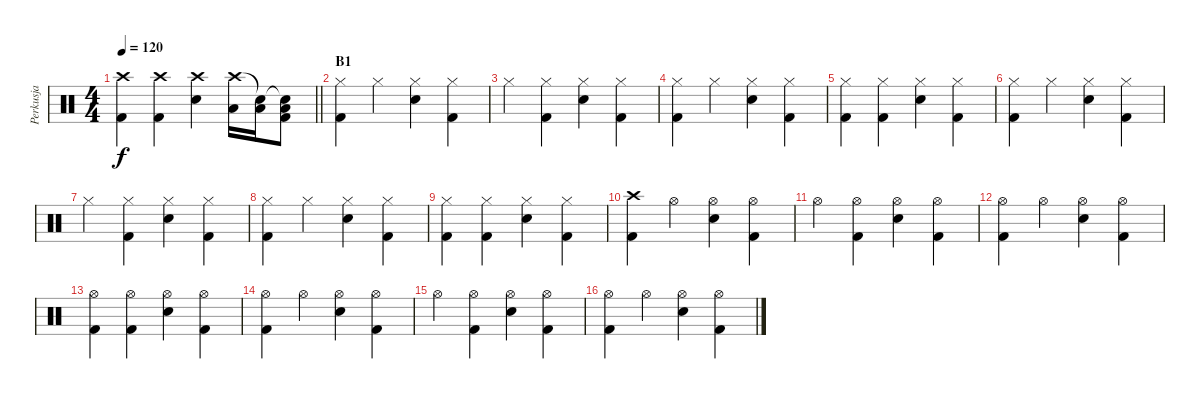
\track ("Perkusja" "Perkusja") {instrument percussion}
\staff {score}
\articulation defaults
\ts (4 4)
\tempo 120
\clef neutral
\barLineRight lightlight
\ks c
("Crash high (hit)" "Kick (hit) 2").4{dy f} ("Crash high (hit)" "Kick (hit) 2").4 ("Crash high (hit)" "Electric Snare (hit)").4 ("Crash high (hit)" "Low Tom (hit)").16 ("Snare (hit)"{t} "Low Tom (hit)").16 ("Snare (hit)"{t} "Low Floor Tom (hit)" "Kick (hit) 2").8 |
\section ("" "B1")
("Hi-Hat (closed)" "Kick (hit) 2").4 "Hi-Hat (closed)".4 ("Hi-Hat (closed)" "Electric Snare (hit)").4 ("Hi-Hat (closed)" "Kick (hit) 2").4 |
"Hi-Hat (closed)".4 ("Hi-Hat (closed)" "Kick (hit) 2").4 ("Hi-Hat (closed)" "Electric Snare (hit)").4 ("Hi-Hat (closed)" "Kick (hit) 2").4 |
("Hi-Hat (closed)" "Kick (hit) 2").4 "Hi-Hat (closed)".4 ("Hi-Hat (closed)" "Electric Snare (hit)").4 ("Hi-Hat (closed)" "Kick (hit) 2").4 |
("Hi-Hat (closed)" "Kick (hit) 2").4 ("Hi-Hat (closed)" "Kick (hit) 2").4 ("Hi-Hat (closed)" "Electric Snare (hit)").4 ("Hi-Hat (closed)" "Kick (hit) 2").4 |
("Hi-Hat (closed)" "Kick (hit) 2").4 "Hi-Hat (closed)".4 ("Hi-Hat (closed)" "Electric Snare (hit)").4 ("Hi-Hat (closed)" "Kick (hit) 2").4 |
"Hi-Hat (closed)".4 ("Hi-Hat (closed)" "Kick (hit) 2").4 ("Hi-Hat (closed)" "Electric Snare (hit)").4 ("Hi-Hat (closed)" "Kick (hit) 2").4 |
("Hi-Hat (closed)" "Kick (hit) 2").4 "Hi-Hat (closed)".4 ("Hi-Hat (closed)" "Electric Snare (hit)").4 ("Hi-Hat (closed)" "Kick (hit) 2").4 |
("Hi-Hat (closed)" "Kick (hit) 2").4 ("Hi-Hat (closed)" "Kick (hit) 2").4 ("Hi-Hat (closed)" "Electric Snare (hit)").4 ("Hi-Hat (closed)" "Kick (hit) 2").4 |
("Crash high (hit)" "Kick (hit) 2").4 "Hi-Hat (open)".4 ("Hi-Hat (open)" "Electric Snare (hit)").4 ("Hi-Hat (open)" "Kick (hit) 2").4 |
"Hi-Hat (open)".4 ("Hi-Hat (open)" "Kick (hit) 2").4 ("Hi-Hat (open)" "Electric Snare (hit)").4 ("Hi-Hat (open)" "Kick (hit) 2").4 |
("Hi-Hat (open)" "Kick (hit) 2").4 "Hi-Hat (open)".4 ("Hi-Hat (open)" "Electric Snare (hit)").4 ("Hi-Hat (open)" "Kick (hit) 2").4 |
("Hi-Hat (open)" "Kick (hit) 2").4 ("Hi-Hat (open)" "Kick (hit) 2").4 ("Hi-Hat (open)" "Electric Snare (hit)").4 ("Hi-Hat (open)" "Kick (hit) 2").4 |
("Hi-Hat (open)" "Kick (hit) 2").4 "Hi-Hat (open)".4 ("Hi-Hat (open)" "Electric Snare (hit)").4 ("Hi-Hat (open)" "Kick (hit) 2").4 |
"Hi-Hat (open)".4 ("Hi-Hat (open)" "Kick (hit) 2").4 ("Hi-Hat (open)" "Electric Snare (hit)").4 ("Hi-Hat (open)" "Kick (hit) 2").4 |
("Hi-Hat (open)" "Kick (hit) 2").4 "Hi-Hat (open)".4 ("Hi-Hat (open)" "Electric Snare (hit)").4 ("Hi-Hat (open)" "Kick (hit) 2").4
